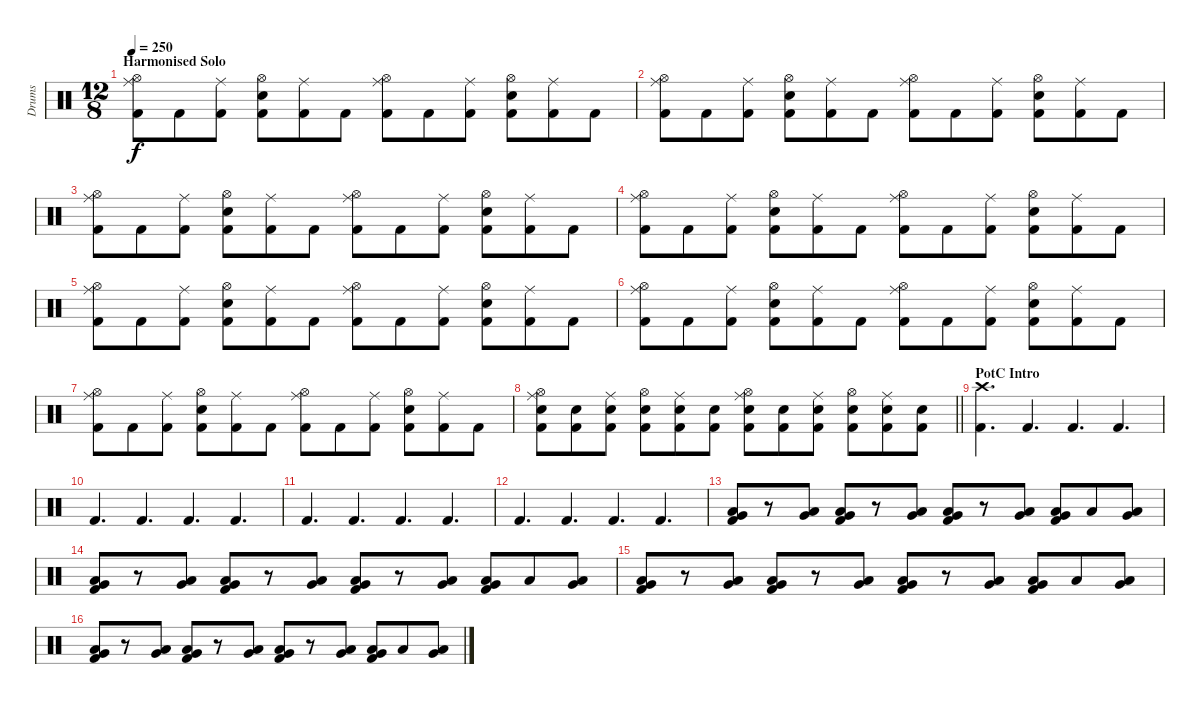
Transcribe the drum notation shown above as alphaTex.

\track ("Drums" "Drums") {instrument percussion}
\staff {score}
\articulation defaults
\ts (12 8)
\section ("" "Harmonised Solo")
\tempo 250
\clef neutral
\ks c
("Ride (middle)" "Hi-Hat (open)" "Kick (hit) 2").8{dy f} "Kick (hit) 2".8 ("Ride (middle)" "Kick (hit) 2").8 ("Hi-Hat (open)" "Snare (hit) 2" "Kick (hit) 2").8 ("Ride (middle)" "Kick (hit) 2").8 "Kick (hit) 2".8 ("Ride (middle)" "Hi-Hat (open)" "Kick (hit) 2").8 "Kick (hit) 2".8 ("Ride (middle)" "Kick (hit) 2").8 ("Hi-Hat (open)" "Snare (hit) 2" "Kick (hit) 2").8 ("Ride (middle)" "Kick (hit) 2").8 "Kick (hit) 2".8 |
("Ride (middle)" "Hi-Hat (open)" "Kick (hit) 2").8 "Kick (hit) 2".8 ("Ride (middle)" "Kick (hit) 2").8 ("Hi-Hat (open)" "Snare (hit) 2" "Kick (hit) 2").8 ("Ride (middle)" "Kick (hit) 2").8 "Kick (hit) 2".8 ("Ride (middle)" "Hi-Hat (open)" "Kick (hit) 2").8 "Kick (hit) 2".8 ("Ride (middle)" "Kick (hit) 2").8 ("Hi-Hat (open)" "Snare (hit) 2" "Kick (hit) 2").8 ("Ride (middle)" "Kick (hit) 2").8 "Kick (hit) 2".8 |
("Ride (middle)" "Hi-Hat (open)" "Kick (hit) 2").8 "Kick (hit) 2".8 ("Ride (middle)" "Kick (hit) 2").8 ("Hi-Hat (open)" "Snare (hit) 2" "Kick (hit) 2").8 ("Ride (middle)" "Kick (hit) 2").8 "Kick (hit) 2".8 ("Ride (middle)" "Hi-Hat (open)" "Kick (hit) 2").8 "Kick (hit) 2".8 ("Ride (middle)" "Kick (hit) 2").8 ("Hi-Hat (open)" "Snare (hit) 2" "Kick (hit) 2").8 ("Ride (middle)" "Kick (hit) 2").8 "Kick (hit) 2".8 |
("Ride (middle)" "Hi-Hat (open)" "Kick (hit) 2").8 "Kick (hit) 2".8 ("Ride (middle)" "Kick (hit) 2").8 ("Hi-Hat (open)" "Snare (hit) 2" "Kick (hit) 2").8 ("Ride (middle)" "Kick (hit) 2").8 "Kick (hit) 2".8 ("Ride (middle)" "Hi-Hat (open)" "Kick (hit) 2").8 "Kick (hit) 2".8 ("Ride (middle)" "Kick (hit) 2").8 ("Hi-Hat (open)" "Snare (hit) 2" "Kick (hit) 2").8 ("Ride (middle)" "Kick (hit) 2").8 "Kick (hit) 2".8 |
("Ride (middle)" "Hi-Hat (open)" "Kick (hit) 2").8 "Kick (hit) 2".8 ("Ride (middle)" "Kick (hit) 2").8 ("Hi-Hat (open)" "Snare (hit) 2" "Kick (hit) 2").8 ("Ride (middle)" "Kick (hit) 2").8 "Kick (hit) 2".8 ("Ride (middle)" "Hi-Hat (open)" "Kick (hit) 2").8 "Kick (hit) 2".8 ("Ride (middle)" "Kick (hit) 2").8 ("Hi-Hat (open)" "Snare (hit) 2" "Kick (hit) 2").8 ("Ride (middle)" "Kick (hit) 2").8 "Kick (hit) 2".8 |
("Ride (middle)" "Hi-Hat (open)" "Kick (hit) 2").8 "Kick (hit) 2".8 ("Ride (middle)" "Kick (hit) 2").8 ("Hi-Hat (open)" "Snare (hit) 2" "Kick (hit) 2").8 ("Ride (middle)" "Kick (hit) 2").8 "Kick (hit) 2".8 ("Ride (middle)" "Hi-Hat (open)" "Kick (hit) 2").8 "Kick (hit) 2".8 ("Ride (middle)" "Kick (hit) 2").8 ("Hi-Hat (open)" "Snare (hit) 2" "Kick (hit) 2").8 ("Ride (middle)" "Kick (hit) 2").8 "Kick (hit) 2".8 |
("Ride (middle)" "Hi-Hat (open)" "Kick (hit) 2").8 "Kick (hit) 2".8 ("Ride (middle)" "Kick (hit) 2").8 ("Hi-Hat (open)" "Snare (hit) 2" "Kick (hit) 2").8 ("Ride (middle)" "Kick (hit) 2").8 "Kick (hit) 2".8 ("Ride (middle)" "Hi-Hat (open)" "Kick (hit) 2").8 "Kick (hit) 2".8 ("Ride (middle)" "Kick (hit) 2").8 ("Hi-Hat (open)" "Snare (hit) 2" "Kick (hit) 2").8 ("Ride (middle)" "Kick (hit) 2").8 "Kick (hit) 2".8 |
\barLineRight lightlight
("Ride (middle)" "Hi-Hat (open)" "Snare (hit) 2" "Kick (hit) 2").8 ("Snare (hit) 2" "Kick (hit) 2").8 ("Ride (middle)" "Snare (hit) 2" "Kick (hit) 2").8 ("Hi-Hat (open)" "Snare (hit) 2" "Kick (hit) 2").8 ("Ride (middle)" "Snare (hit) 2" "Kick (hit) 2").8 ("Snare (hit) 2" "Kick (hit) 2").8 ("Ride (middle)" "Hi-Hat (open)" "Snare (hit) 2" "Kick (hit) 2").8 ("Snare (hit) 2" "Kick (hit) 2").8 ("Ride (middle)" "Snare (hit) 2" "Kick (hit) 2").8 ("Hi-Hat (open)" "Snare (hit) 2" "Kick (hit) 2").8 ("Ride (middle)" "Snare (hit) 2" "Kick (hit) 2").8 ("Snare (hit) 2" "Kick (hit) 2").8 |
\section ("" "PotC Intro")
("Crash high (hit)" "Kick (hit) 2").4{d} "Kick (hit) 2".4{d} "Kick (hit) 2".4{d} "Kick (hit) 2".4{d} |
"Kick (hit) 2".4{d} "Kick (hit) 2".4{d} "Kick (hit) 2".4{d} "Kick (hit) 2".4{d} |
"Kick (hit) 2".4{d} "Kick (hit) 2".4{d} "Kick (hit) 2".4{d} "Kick (hit) 2".4{d} |
"Kick (hit) 2".4{d} "Kick (hit) 2".4{d} "Kick (hit) 2".4{d} "Kick (hit) 2".4{d} |
("Very Low Tom (hit)" "Low Floor Tom (hit)" "Kick (hit) 2").8 r.8 ("Very Low Tom (hit)" "Low Floor Tom (hit)").8 ("Very Low Tom (hit)" "Low Floor Tom (hit)" "Kick (hit) 2").8 r.8 ("Very Low Tom (hit)" "Low Floor Tom (hit)").8 ("Very Low Tom (hit)" "Low Floor Tom (hit)" "Kick (hit) 2").8 r.8 ("Very Low Tom (hit)" "Low Floor Tom (hit)").8 ("Very Low Tom (hit)" "Low Floor Tom (hit)" "Kick (hit) 2").8 "Low Floor Tom (hit)".8 ("Very Low Tom (hit)" "Low Floor Tom (hit)").8 |
("Very Low Tom (hit)" "Low Floor Tom (hit)" "Kick (hit) 2").8 r.8 ("Very Low Tom (hit)" "Low Floor Tom (hit)").8 ("Very Low Tom (hit)" "Low Floor Tom (hit)" "Kick (hit) 2").8 r.8 ("Very Low Tom (hit)" "Low Floor Tom (hit)").8 ("Very Low Tom (hit)" "Low Floor Tom (hit)" "Kick (hit) 2").8 r.8 ("Very Low Tom (hit)" "Low Floor Tom (hit)").8 ("Very Low Tom (hit)" "Low Floor Tom (hit)" "Kick (hit) 2").8 "Low Floor Tom (hit)".8 ("Very Low Tom (hit)" "Low Floor Tom (hit)").8 |
("Very Low Tom (hit)" "Low Floor Tom (hit)" "Kick (hit) 2").8 r.8 ("Very Low Tom (hit)" "Low Floor Tom (hit)").8 ("Very Low Tom (hit)" "Low Floor Tom (hit)" "Kick (hit) 2").8 r.8 ("Very Low Tom (hit)" "Low Floor Tom (hit)").8 ("Very Low Tom (hit)" "Low Floor Tom (hit)" "Kick (hit) 2").8 r.8 ("Very Low Tom (hit)" "Low Floor Tom (hit)").8 ("Very Low Tom (hit)" "Low Floor Tom (hit)" "Kick (hit) 2").8 "Low Floor Tom (hit)".8 ("Very Low Tom (hit)" "Low Floor Tom (hit)").8 |
("Very Low Tom (hit)" "Low Floor Tom (hit)" "Kick (hit) 2").8 r.8 ("Very Low Tom (hit)" "Low Floor Tom (hit)").8 ("Very Low Tom (hit)" "Low Floor Tom (hit)" "Kick (hit) 2").8 r.8 ("Very Low Tom (hit)" "Low Floor Tom (hit)").8 ("Very Low Tom (hit)" "Low Floor Tom (hit)" "Kick (hit) 2").8 r.8 ("Very Low Tom (hit)" "Low Floor Tom (hit)").8 ("Very Low Tom (hit)" "Low Floor Tom (hit)" "Kick (hit) 2").8 "Low Floor Tom (hit)".8 ("Very Low Tom (hit)" "Low Floor Tom (hit)").8
